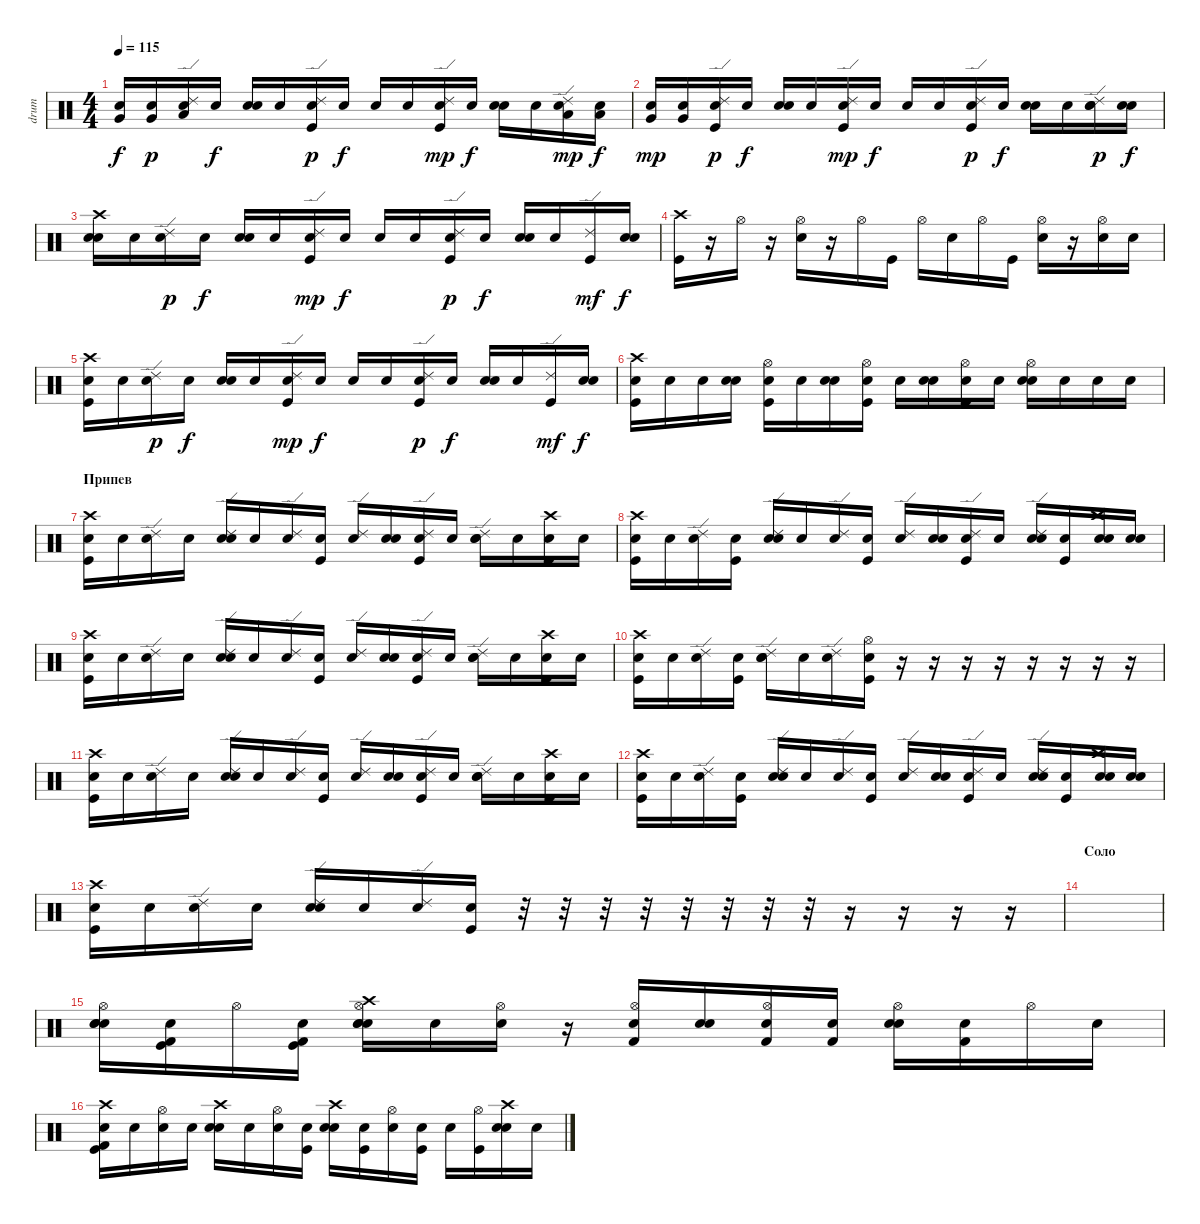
\track ("drum" "drum") {instrument percussion}
\staff {score}
\articulation defaults
\ts (4 4)
\tempo 115
\clef neutral
\ks c
("Snare (hit)"{x} "Very Low Tom (hit)").16{dy f} ("Snare (hit)"{x} "Very Low Tom (hit)").16{dy p} ("Snare (hit)"{x} "Ride (edge) 2" "Low Floor Tom (hit)").16 "Snare (hit)"{x}.16{dy f} ("Snare (hit)"{x} "Snare (hit) 2").16 "Snare (hit)"{x}.16 ("Snare (hit)"{x} "Ride (edge) 2" "Kick (hit)").16{dy p} "Snare (hit)"{x}.16{dy f} "Snare (hit)"{x}.16 "Snare (hit)"{x}.16 ("Snare (hit)"{x} "Ride (edge) 2" "Kick (hit)").16{dy mp} "Snare (hit)"{x}.16{dy f} ("Snare (hit)"{x} "Snare (hit) 2").16 "Snare (hit)"{x}.16 ("Snare (hit)"{x} "Ride (edge) 2" "Low Tom (hit)").16{dy mp} ("Snare (hit)"{x} "Low Tom (hit)").16{dy f} |
("Snare (hit)"{x} "Very Low Tom (hit)").16{dy mp} ("Snare (hit)"{x} "Very Low Tom (hit)").16 ("Snare (hit)"{x} "Ride (edge) 2" "Kick (hit)").16{dy p} "Snare (hit)"{x}.16{dy f} ("Snare (hit)"{x} "Snare (hit) 2").16 "Snare (hit)"{x}.16 ("Snare (hit)"{x} "Ride (edge) 2" "Kick (hit)").16{dy mp} "Snare (hit)"{x}.16{dy f} "Snare (hit)"{x}.16 "Snare (hit)"{x}.16 ("Snare (hit)"{x} "Ride (edge) 2" "Kick (hit)").16{dy p} "Snare (hit)"{x}.16{dy f} ("Snare (hit)"{x} "Snare (hit) 2").16 "Snare (hit)"{x}.16 ("Snare (hit)"{x} "Ride (edge) 2" "Snare (hit) 2").16{dy p} ("Snare (hit)"{x} "Snare (hit) 2").16{dy f} |
("Snare (hit)"{x} "Crash high (hit)" "Snare (hit) 2").16 "Snare (hit)"{x}.16 ("Snare (hit)"{x} "Ride (edge) 2").16{dy p} "Snare (hit)"{x}.16{dy f} ("Snare (hit)"{x} "Snare (hit) 2").16 "Snare (hit)"{x}.16 ("Snare (hit)"{x} "Ride (edge) 2" "Kick (hit)").16{dy mp} "Snare (hit)"{x}.16{dy f} "Snare (hit)"{x}.16 "Snare (hit)"{x}.16 ("Snare (hit)"{x} "Ride (edge) 2" "Kick (hit)").16{dy p} "Snare (hit)"{x}.16{dy f} ("Snare (hit)"{x} "Snare (hit) 2").16 "Snare (hit)"{x}.16 ("Ride (edge) 2" "Kick (hit)").16{dy mf} ("Snare (hit)"{x} "Snare (hit) 2").16{dy f} |
("Crash high (hit)" "Kick (hit)").16 r.16 "Hi-Hat (open)".16 r.16 ("Hi-Hat (open)" "Snare (hit) 2").16 r.16 "Hi-Hat (open)".16 "Kick (hit)".16 "Hi-Hat (open)".16 "Snare (hit) 2".16 "Hi-Hat (open)".16 "Kick (hit)".16 ("Hi-Hat (open)" "Snare (hit) 2").16 r.16 ("Hi-Hat (open)" "Snare (hit) 2").16 "Snare (hit) 2".16 |
("Snare (hit)"{x} "Crash high (hit)" "Kick (hit)").16 "Snare (hit)"{x}.16 ("Snare (hit)"{x} "Ride (edge) 2").16{dy p} "Snare (hit)"{x}.16{dy f} ("Snare (hit)"{x} "Snare (hit) 2").16 "Snare (hit)"{x}.16 ("Snare (hit)"{x} "Ride (edge) 2" "Kick (hit)").16{dy mp} "Snare (hit)"{x}.16{dy f} "Snare (hit)"{x}.16 "Snare (hit)"{x}.16 ("Snare (hit)"{x} "Ride (edge) 2" "Kick (hit)").16{dy p} "Snare (hit)"{x}.16{dy f} ("Snare (hit)"{x} "Snare (hit) 2").16 "Snare (hit)"{x}.16 ("Ride (edge) 2" "Kick (hit)").16{dy mf} ("Snare (hit)"{x} "Snare (hit) 2").16{dy f} |
("Snare (hit)"{x} "Kick (hit)" "Crash high (hit)").16 "Snare (hit)"{x}.16 "Snare (hit)"{x}.16 ("Snare (hit)"{x} "Snare (hit) 2").16 ("Snare (hit)"{x} "Hi-Hat (open)" "Kick (hit)").16 "Snare (hit)"{x}.16 ("Snare (hit)"{x} "Snare (hit) 2").16 ("Snare (hit)"{x} "Hi-Hat (open)" "Kick (hit)").16 "Snare (hit)"{x}.16 ("Snare (hit)"{x} "Snare (hit) 2").16 ("Snare (hit)"{x} "Hi-Hat (open)" "Kick (hit)").16 "Snare (hit)"{x}.16 ("Snare (hit)"{x} "Hi-Hat (open)" "Snare (hit) 2").16 "Snare (hit)"{x}.16 "Snare (hit)"{x}.16 "Snare (hit)"{x}.16 |
\section ("" "Припев")
("Snare (hit)"{x} "Crash high (hit)" "Kick (hit)").16 "Snare (hit)"{x}.16 ("Snare (hit)"{x} "Ride (edge) 2").16 "Snare (hit)"{x}.16 ("Snare (hit)"{x} "Ride (edge) 2" "Electric Snare (hit)").16 "Snare (hit)"{x}.16 ("Snare (hit)"{x} "Ride (edge) 2").16 ("Snare (hit)"{x} "Kick (hit)").16 ("Snare (hit)"{x} "Ride (edge) 2").16 ("Snare (hit)"{x} "Electric Snare (hit)").16 ("Snare (hit)"{x} "Ride (edge) 2" "Kick (hit)").16 "Snare (hit)"{x}.16 ("Snare (hit)"{x} "Ride (edge) 2" "Electric Snare (hit)").16 "Snare (hit)"{x}.16 ("Snare (hit)"{x} "Crash high (hit)" "Kick (hit)").16 "Snare (hit)"{x}.16 |
("Snare (hit)"{x} "Crash high (hit)" "Kick (hit)").16 "Snare (hit)"{x}.16 ("Snare (hit)"{x} "Ride (edge) 2").16 ("Snare (hit)"{x} "Kick (hit)").16 ("Snare (hit)"{x} "Ride (edge) 2" "Electric Snare (hit)").16 "Snare (hit)"{x}.16 ("Snare (hit)"{x} "Ride (edge) 2").16 ("Snare (hit)"{x} "Kick (hit)").16 ("Snare (hit)"{x} "Ride (edge) 2").16 ("Snare (hit)"{x} "Electric Snare (hit)").16 ("Snare (hit)"{x} "Ride (edge) 2" "Kick (hit)").16 "Snare (hit)"{x}.16 ("Snare (hit)"{x} "Ride (edge) 2" "Electric Snare (hit)").16 ("Snare (hit)"{x} "Kick (hit)").16 ("Snare (hit)"{x} "Crash high (hit)" "Electric Snare (hit)").16 ("Snare (hit)"{x} "Electric Snare (hit)").16 |
("Snare (hit)"{x} "Crash high (hit)" "Kick (hit)").16 "Snare (hit)"{x}.16 ("Snare (hit)"{x} "Ride (edge) 2").16 "Snare (hit)"{x}.16 ("Snare (hit)"{x} "Ride (edge) 2" "Electric Snare (hit)").16 "Snare (hit)"{x}.16 ("Snare (hit)"{x} "Ride (edge) 2").16 ("Snare (hit)"{x} "Kick (hit)").16 ("Snare (hit)"{x} "Ride (edge) 2").16 ("Snare (hit)"{x} "Electric Snare (hit)").16 ("Snare (hit)"{x} "Ride (edge) 2" "Kick (hit)").16 "Snare (hit)"{x}.16 ("Snare (hit)"{x} "Ride (edge) 2" "Electric Snare (hit)").16 "Snare (hit)"{x}.16 ("Snare (hit)"{x} "Crash high (hit)" "Kick (hit)").16 "Snare (hit)"{x}.16 |
("Snare (hit)"{x} "Crash high (hit)" "Kick (hit)").16 "Snare (hit)"{x}.16 ("Snare (hit)"{x} "Ride (edge) 2").16 ("Snare (hit)"{x} "Kick (hit)").16 ("Snare (hit)"{x} "Ride (edge) 2" "Electric Snare (hit)").16 "Snare (hit)"{x}.16 ("Snare (hit)"{x} "Ride (edge) 2").16 ("Snare (hit)"{x} "Hi-Hat (open)" "Kick (hit)").16 r.16 r.16 r.16 r.16 r.16 r.16 r.16 r.16 |
("Snare (hit)"{x} "Crash high (hit)" "Kick (hit)").16 "Snare (hit)"{x}.16 ("Snare (hit)"{x} "Ride (edge) 2").16 "Snare (hit)"{x}.16 ("Snare (hit)"{x} "Ride (edge) 2" "Electric Snare (hit)").16 "Snare (hit)"{x}.16 ("Snare (hit)"{x} "Ride (edge) 2").16 ("Snare (hit)"{x} "Kick (hit)").16 ("Snare (hit)"{x} "Ride (edge) 2").16 ("Snare (hit)"{x} "Electric Snare (hit)").16 ("Snare (hit)"{x} "Ride (edge) 2" "Kick (hit)").16 "Snare (hit)"{x}.16 ("Snare (hit)"{x} "Ride (edge) 2" "Electric Snare (hit)").16 "Snare (hit)"{x}.16 ("Snare (hit)"{x} "Crash high (hit)" "Kick (hit)").16 "Snare (hit)"{x}.16 |
("Snare (hit)"{x} "Crash high (hit)" "Kick (hit)").16 "Snare (hit)"{x}.16 ("Snare (hit)"{x} "Ride (edge) 2").16 ("Snare (hit)"{x} "Kick (hit)").16 ("Snare (hit)"{x} "Ride (edge) 2" "Electric Snare (hit)").16 "Snare (hit)"{x}.16 ("Snare (hit)"{x} "Ride (edge) 2").16 ("Snare (hit)"{x} "Kick (hit)").16 ("Snare (hit)"{x} "Ride (edge) 2").16 ("Snare (hit)"{x} "Electric Snare (hit)").16 ("Snare (hit)"{x} "Ride (edge) 2" "Kick (hit)").16 "Snare (hit)"{x}.16 ("Snare (hit)"{x} "Ride (edge) 2" "Electric Snare (hit)").16 ("Snare (hit)"{x} "Kick (hit)").16 ("Snare (hit)"{x} "Crash high (hit)" "Electric Snare (hit)").16 ("Snare (hit)"{x} "Electric Snare (hit)").16 |
("Snare (hit)"{x} "Crash high (hit)" "Kick (hit)").16 "Snare (hit)"{x}.16 ("Snare (hit)"{x} "Ride (edge) 2").16 "Snare (hit)"{x}.16 ("Snare (hit)"{x} "Ride (edge) 2" "Electric Snare (hit)").16 "Snare (hit)"{x}.16 ("Snare (hit)"{x} "Ride (edge) 2").16 ("Snare (hit)"{x} "Kick (hit)").16 r.32 r.32 r.32 r.32 r.32 r.32 r.32 r.32 r.16 r.16 r.16 r.16 |
\section ("" "Соло")
|
("Snare (hit)"{x} "Hi-Hat (open)" "Snare (hit) 2" "Electric Snare (hit)").16 ("Snare (hit)"{x} "Kick (hit) 2" "Kick (hit)").16 "Hi-Hat (open)".16 ("Snare (hit)"{x} "Kick (hit) 2" "Kick (hit)").16 ("Snare (hit)"{x} "Hi-Hat (open)" "Snare (hit) 2" "Electric Snare (hit)" "Crash high (hit)").16 "Snare (hit)"{x}.16 ("Snare (hit)"{x} "Hi-Hat (open)").16 r.16 ("Snare (hit)"{x} "Hi-Hat (open)" "Kick (hit) 2").16 ("Snare (hit)"{x} "Snare (hit) 2").16 ("Snare (hit)"{x} "Hi-Hat (open)" "Kick (hit) 2").16 ("Snare (hit)"{x} "Kick (hit) 2").16 ("Snare (hit)"{x} "Hi-Hat (open)" "Snare (hit) 2").16 ("Snare (hit)"{x} "Kick (hit) 2").16 "Hi-Hat (open)".16 "Snare (hit)"{x}.16 |
("Snare (hit)"{x} "Kick (hit)" "Kick (hit) 2" "Crash high (hit)").16 "Snare (hit)"{x}.16 ("Snare (hit)"{x} "Hi-Hat (open)").16 "Snare (hit)"{x}.16 ("Snare (hit)"{x} "Electric Snare (hit)" "Crash high (hit)").16 "Snare (hit)"{x}.16 ("Snare (hit)"{x} "Hi-Hat (open)").16 ("Snare (hit)"{x} "Kick (hit)").16 ("Snare (hit)"{x} "Crash high (hit)" "Electric Snare (hit)").16 ("Snare (hit)"{x} "Kick (hit)").16 ("Snare (hit)"{x} "Hi-Hat (open)").16 ("Snare (hit)"{x} "Kick (hit)").16 "Snare (hit)"{x}.16 ("Hi-Hat (open)" "Kick (hit)").16 ("Snare (hit)"{x} "Crash high (hit)" "Electric Snare (hit)").16 "Snare (hit)"{x}.16
